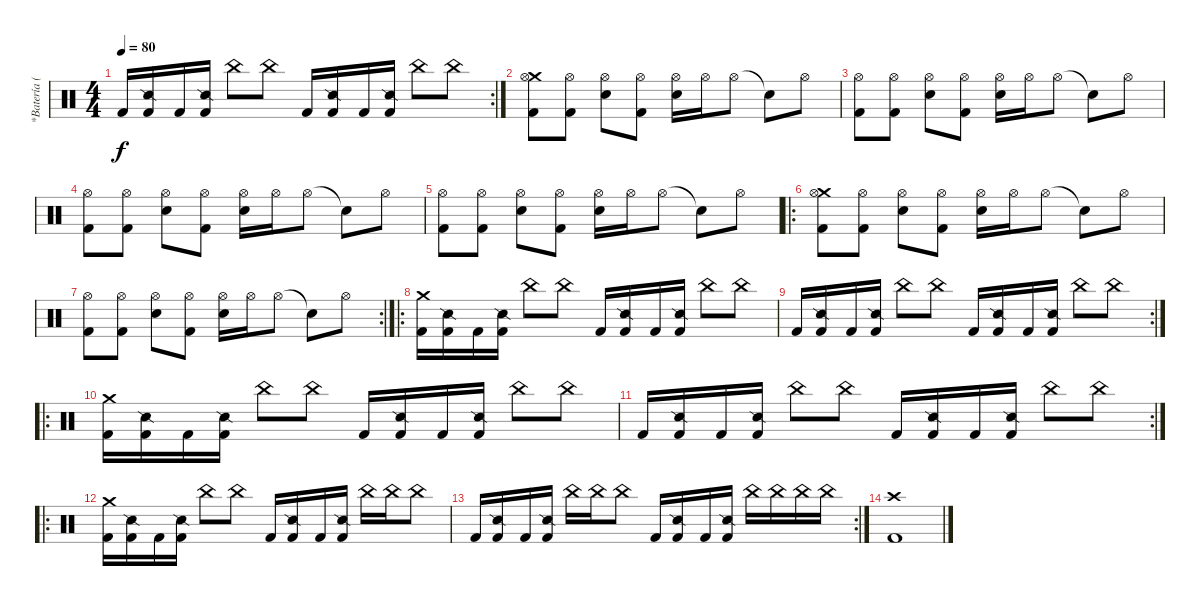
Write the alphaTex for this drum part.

\track ("*Batería (Toño)" "*Batería (") {instrument percussion}
\staff {score}
\articulation defaults
\rc 2
\ts (4 4)
\tempo 80
\clef neutral
\ks c "Kick (hit) 2".16{dy f}
("Snare (side stick) 2" "Kick (hit) 2").16 "Kick (hit) 2".16 ("Snare (side stick) 2" "Kick (hit) 2").16 "China (hit)".8 "China (hit)".8 "Kick (hit) 2".16 ("Snare (side stick) 2" "Kick (hit) 2").16 "Kick (hit) 2".16 ("Snare (side stick) 2" "Kick (hit) 2").16 "China (hit)".8 "China (hit)".8 |
("Crash medium (hit)" "Hi-Hat (open)" "Kick (hit) 2").8 ("Hi-Hat (open)" "Kick (hit) 2").8 ("Hi-Hat (open)" "Electric Snare (hit)").8 ("Hi-Hat (open)" "Kick (hit) 2").8 ("Hi-Hat (open)" "Electric Snare (hit)").16 "Hi-Hat (open)".16 "Hi-Hat (open)".8 "Snare (hit)"{t}.8 "Hi-Hat (open)".8 |
("Hi-Hat (open)" "Kick (hit) 2").8 ("Hi-Hat (open)" "Kick (hit) 2").8 ("Hi-Hat (open)" "Electric Snare (hit)").8 ("Hi-Hat (open)" "Kick (hit) 2").8 ("Hi-Hat (open)" "Electric Snare (hit)").16 "Hi-Hat (open)".16 "Hi-Hat (open)".8 "Snare (hit)"{t}.8 "Hi-Hat (open)".8 |
("Hi-Hat (open)" "Kick (hit) 2").8 ("Hi-Hat (open)" "Kick (hit) 2").8 ("Hi-Hat (open)" "Electric Snare (hit)").8 ("Hi-Hat (open)" "Kick (hit) 2").8 ("Hi-Hat (open)" "Electric Snare (hit)").16 "Hi-Hat (open)".16 "Hi-Hat (open)".8 "Snare (hit)"{t}.8 "Hi-Hat (open)".8 |
("Hi-Hat (open)" "Kick (hit) 2").8 ("Hi-Hat (open)" "Kick (hit) 2").8 ("Hi-Hat (open)" "Electric Snare (hit)").8 ("Hi-Hat (open)" "Kick (hit) 2").8 ("Hi-Hat (open)" "Electric Snare (hit)").16 "Hi-Hat (open)".16 "Hi-Hat (open)".8 "Snare (hit)"{t}.8 "Hi-Hat (open)".8 |
\ro
("Crash medium (hit)" "Hi-Hat (open)" "Kick (hit) 2").8 ("Hi-Hat (open)" "Kick (hit) 2").8 ("Hi-Hat (open)" "Electric Snare (hit)").8 ("Hi-Hat (open)" "Kick (hit) 2").8 ("Hi-Hat (open)" "Electric Snare (hit)").16 "Hi-Hat (open)".16 "Hi-Hat (open)".8 "Snare (hit)"{t}.8 "Hi-Hat (open)".8 |
\rc 2
("Hi-Hat (open)" "Kick (hit) 2").8 ("Hi-Hat (open)" "Kick (hit) 2").8 ("Hi-Hat (open)" "Electric Snare (hit)").8 ("Hi-Hat (open)" "Kick (hit) 2").8 ("Hi-Hat (open)" "Electric Snare (hit)").16 "Hi-Hat (open)".16 "Hi-Hat (open)".8 "Snare (hit)"{t}.8 "Hi-Hat (open)".8 |
\ro
("Crash medium (hit)" "Kick (hit) 2").16 ("Snare (side stick) 2" "Kick (hit) 2").16 "Kick (hit) 2".16 ("Snare (side stick) 2" "Kick (hit) 2").16 "China (hit)".8 "China (hit)".8 "Kick (hit) 2".16 ("Snare (side stick) 2" "Kick (hit) 2").16 "Kick (hit) 2".16 ("Snare (side stick) 2" "Kick (hit) 2").16 "China (hit)".8 "China (hit)".8 |
\rc 2 "Kick (hit) 2".16
("Snare (side stick) 2" "Kick (hit) 2").16 "Kick (hit) 2".16 ("Snare (side stick) 2" "Kick (hit) 2").16 "China (hit)".8 "China (hit)".8 "Kick (hit) 2".16 ("Snare (side stick) 2" "Kick (hit) 2").16 "Kick (hit) 2".16 ("Snare (side stick) 2" "Kick (hit) 2").16 "China (hit)".8 "China (hit)".8 |
\ro
("Crash medium (hit)" "Kick (hit) 2").16 ("Snare (side stick) 2" "Kick (hit) 2").16 "Kick (hit) 2".16 ("Snare (side stick) 2" "Kick (hit) 2").16 "China (hit)".8 "China (hit)".8 "Kick (hit) 2".16 ("Snare (side stick) 2" "Kick (hit) 2").16 "Kick (hit) 2".16 ("Snare (side stick) 2" "Kick (hit) 2").16 "China (hit)".8 "China (hit)".8 |
\rc 2 "Kick (hit) 2".16
("Snare (side stick) 2" "Kick (hit) 2").16 "Kick (hit) 2".16 ("Snare (side stick) 2" "Kick (hit) 2").16 "China (hit)".8 "China (hit)".8 "Kick (hit) 2".16 ("Snare (side stick) 2" "Kick (hit) 2").16 "Kick (hit) 2".16 ("Snare (side stick) 2" "Kick (hit) 2").16 "China (hit)".8 "China (hit)".8 |
\ro
("Crash medium (hit)" "Kick (hit) 2").16 ("Snare (side stick) 2" "Kick (hit) 2").16 "Kick (hit) 2".16 ("Snare (side stick) 2" "Kick (hit) 2").16 "China (hit)".8 "China (hit)".8 "Kick (hit) 2".16 ("Snare (side stick) 2" "Kick (hit) 2").16 "Kick (hit) 2".16 ("Snare (side stick) 2" "Kick (hit) 2").16 "China (hit)".16 "China (hit)".16 "China (hit)".8 |
\rc 2 "Kick (hit) 2".16
("Snare (side stick) 2" "Kick (hit) 2").16 "Kick (hit) 2".16 ("Snare (side stick) 2" "Kick (hit) 2").16 "China (hit)".16 "China (hit)".16 "China (hit)".8 "Kick (hit) 2".16 ("Snare (side stick) 2" "Kick (hit) 2").16 "Kick (hit) 2".16 ("Snare (side stick) 2" "Kick (hit) 2").16 "China (hit)".16 "China (hit)".16 "China (hit)".16 "China (hit)".16 |
("Crash high (hit)" "Kick (hit) 2").1
